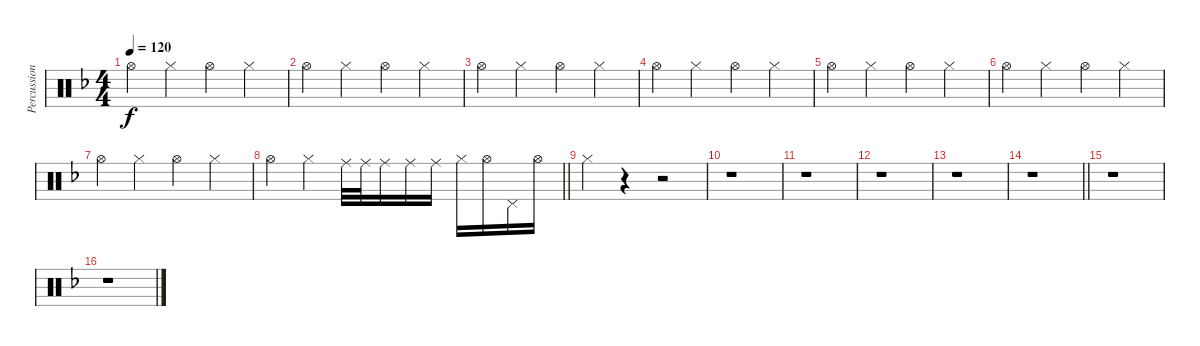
\track ("Percussion" "Percussion") {instrument percussion}
\staff {score}
\articulation defaults
\ts (4 4)
\tempo 120
\clef neutral
\ks dminor "Hi-Hat (open)".4{dy f volume 9} "Hi-Hat (closed)".4 "Hi-Hat (open)".4 "Hi-Hat (closed)".4
|
"Hi-Hat (open)".4 "Hi-Hat (closed)".4 "Hi-Hat (open)".4 "Hi-Hat (closed)".4 |
"Hi-Hat (open)".4 "Hi-Hat (closed)".4 "Hi-Hat (open)".4 "Hi-Hat (closed)".4 |
"Hi-Hat (open)".4 "Hi-Hat (closed)".4 "Hi-Hat (open)".4 "Hi-Hat (closed)".4 |
"Hi-Hat (open)".4 "Hi-Hat (closed)".4 "Hi-Hat (open)".4 "Hi-Hat (closed)".4 |
"Hi-Hat (open)".4 "Hi-Hat (closed)".4 "Hi-Hat (open)".4 "Hi-Hat (closed)".4 |
"Hi-Hat (open)".4 "Hi-Hat (closed)".4 "Hi-Hat (open)".4 "Hi-Hat (closed)".4 |
\barLineRight lightlight "Hi-Hat (open)".4 "Hi-Hat (closed)".4 "Ride (middle)".32 "Ride (middle)".32 "Ride (middle)".16 "Ride (middle)".16 "Ride (middle)".16 "Hi-Hat (closed)".16 "Hi-Hat (open)".16 "Pedal Hi-Hat (hit)".16 "Hi-Hat (open)".16
|
"Hi-Hat (closed)".4 r.4 r.2 |
r.1 |
r.1 |
r.1 |
r.1 |
\barLineRight lightlight
r.1 |
r.1 |
r.1
